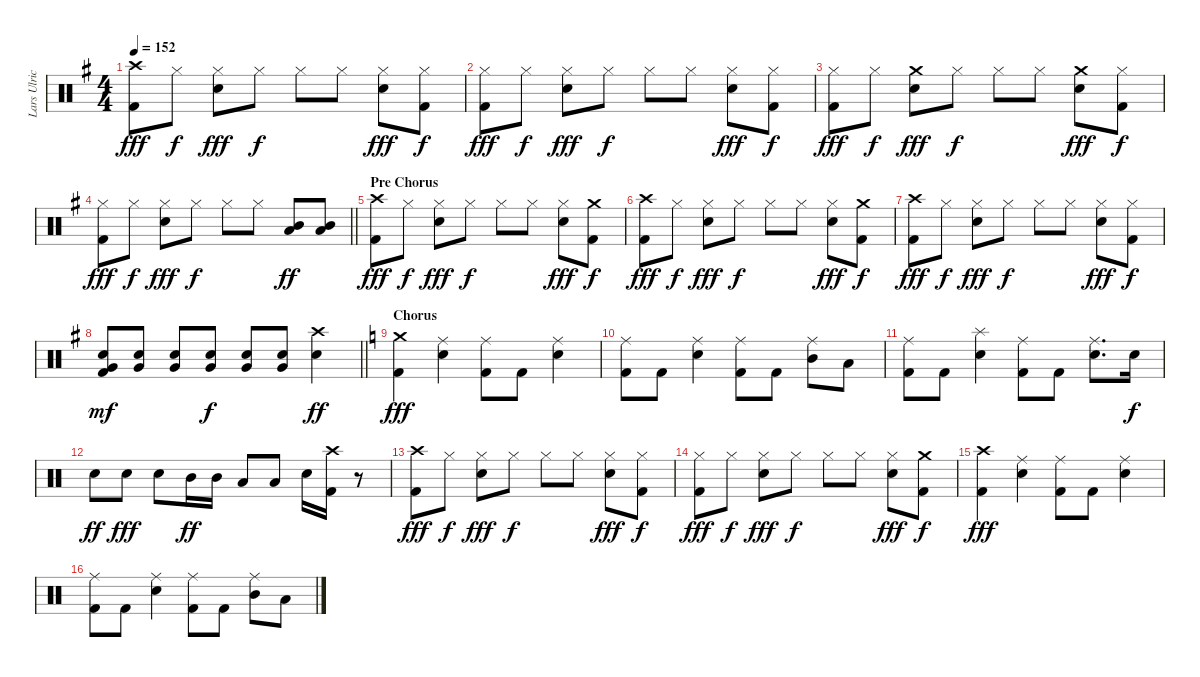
\track ("Lars Ulrich" "Lars Ulric") {instrument percussion}
\staff {score}
\articulation defaults
\ts (4 4)
\tempo 152
\clef neutral
\ks g
("Crash high (hit)" "Kick (hit) 2").8{dy fff} "Hi-Hat (closed)".8{dy f} ("Hi-Hat (closed)" "Snare (hit) 2").8{dy fff} "Hi-Hat (closed)".8{dy f} "Hi-Hat (closed)".8 "Hi-Hat (closed)".8 ("Hi-Hat (closed)" "Snare (hit) 2").8{dy fff} ("Hi-Hat (closed)" "Kick (hit) 2").8{dy f} |
("Hi-Hat (closed)" "Kick (hit) 2").8{dy fff} "Hi-Hat (closed)".8{dy f} ("Hi-Hat (closed)" "Snare (hit) 2").8{dy fff} "Hi-Hat (closed)".8{dy f} "Hi-Hat (closed)".8 "Hi-Hat (closed)".8 ("Hi-Hat (closed)" "Snare (hit) 2").8{dy fff} ("Hi-Hat (closed)" "Kick (hit) 2").8{dy f} |
("Hi-Hat (closed)" "Kick (hit) 2").8{dy fff} "Hi-Hat (closed)".8{dy f} ("Crash medium (hit)" "Snare (hit) 2").8{dy fff} "Hi-Hat (closed)".8{dy f} "Hi-Hat (closed)".8 "Hi-Hat (closed)".8 ("Crash medium (hit)" "Snare (hit) 2").8{dy fff} ("Hi-Hat (closed)" "Kick (hit) 2").8{dy f} |
\barLineRight lightlight
("Hi-Hat (closed)" "Kick (hit) 2").8{dy fff} "Hi-Hat (closed)".8{dy f} ("Hi-Hat (closed)" "Snare (hit) 2").8{dy fff} "Hi-Hat (closed)".8{dy f} "Hi-Hat (closed)".8 "Hi-Hat (closed)".8 ("Low Tom (hit)" "Mid Tom (hit)").8{dy ff} ("Low Tom (hit)" "Mid Tom (hit)").8 |
\section ("" "Pre Chorus")
("Crash high (hit)" "Kick (hit) 2").8{dy fff} "Hi-Hat (closed)".8{dy f} ("Hi-Hat (closed)" "Snare (hit) 2").8{dy fff} "Hi-Hat (closed)".8{dy f} "Hi-Hat (closed)".8 "Hi-Hat (closed)".8 ("Hi-Hat (closed)" "Snare (hit) 2").8{dy fff} ("Crash medium (hit)" "Kick (hit) 2").8{dy f} |
("Crash high (hit)" "Kick (hit) 2").8{dy fff} "Hi-Hat (closed)".8{dy f} ("Hi-Hat (closed)" "Snare (hit) 2").8{dy fff} "Hi-Hat (closed)".8{dy f} "Hi-Hat (closed)".8 "Hi-Hat (closed)".8 ("Hi-Hat (closed)" "Snare (hit) 2").8{dy fff} ("Crash medium (hit)" "Kick (hit) 2").8{dy f} |
("Crash high (hit)" "Kick (hit) 2").8{dy fff} "Hi-Hat (closed)".8{dy f} ("Hi-Hat (closed)" "Snare (hit) 2").8{dy fff} "Hi-Hat (closed)".8{dy f} "Hi-Hat (closed)".8 "Hi-Hat (closed)".8 ("Hi-Hat (closed)" "Snare (hit) 2").8{dy fff} ("Hi-Hat (closed)" "Kick (hit) 2").8{dy f} |
\barLineRight lightlight
("Very Low Tom (hit)" "Snare (hit) 2" "Kick (hit) 2").8{dy mf} ("Very Low Tom (hit)" "Snare (hit) 2").8 ("Very Low Tom (hit)" "Snare (hit) 2").8 ("Very Low Tom (hit)" "Snare (hit) 2").8{dy f} ("Very Low Tom (hit)" "Snare (hit) 2").8 ("Very Low Tom (hit)" "Snare (hit) 2").8 ("Crash high (hit)" "Snare (hit) 2").4{dy ff} |
\section ("" "Chorus")
\ks c
("Crash medium (hit)" "Kick (hit) 2").4{dy fff} ("Ride (middle)" "Snare (hit) 2").4 ("Ride (middle)" "Kick (hit) 2").8 "Kick (hit) 2".8 ("Ride (middle)" "Snare (hit) 2").4 |
("Ride (middle)" "Kick (hit) 2").8 "Kick (hit) 2".8 ("Ride (middle)" "Snare (hit) 2").4 ("Ride (middle)" "Kick (hit) 2").8 "Kick (hit) 2".8 ("Ride (middle)" "Mid Tom (hit)").8 "Low Tom (hit)".8 |
("Ride (middle)" "Kick (hit) 2").8 "Kick (hit) 2".8 ("Splash (hit)" "Snare (hit) 2").4 ("Ride (middle)" "Kick (hit) 2").8 "Kick (hit) 2".8 ("Ride (middle)" "Snare (hit) 2").8{d} "Snare (hit) 2".16{dy f} |
"Snare (hit) 2".8{dy ff} "Snare (hit) 2".8{dy fff} "Snare (hit) 2".8 "Mid Tom (hit)".16{dy ff} "Mid Tom (hit)".16 "Low Tom (hit)".8 "Low Tom (hit)".8 "Snare (hit) 2".16 ("Crash high (hit)" "Kick (hit) 2").16 r.8 |
("Crash high (hit)" "Kick (hit) 2").8{dy fff} "Hi-Hat (closed)".8{dy f} ("Hi-Hat (closed)" "Snare (hit) 2").8{dy fff} "Hi-Hat (closed)".8{dy f} "Hi-Hat (closed)".8 "Hi-Hat (closed)".8 ("Hi-Hat (closed)" "Snare (hit) 2").8{dy fff} ("Hi-Hat (closed)" "Kick (hit) 2").8{dy f} |
("Hi-Hat (closed)" "Kick (hit) 2").8{dy fff} "Hi-Hat (closed)".8{dy f} ("Hi-Hat (closed)" "Snare (hit) 2").8{dy fff} "Hi-Hat (closed)".8{dy f} "Hi-Hat (closed)".8 "Hi-Hat (closed)".8 ("Hi-Hat (closed)" "Snare (hit) 2").8{dy fff} ("Crash medium (hit)" "Kick (hit) 2").8{dy f} |
("Crash high (hit)" "Kick (hit) 2").4{dy fff} ("Ride (middle)" "Snare (hit) 2").4 ("Ride (middle)" "Kick (hit) 2").8 "Kick (hit) 2".8 ("Ride (middle)" "Snare (hit) 2").4 |
("Ride (middle)" "Kick (hit) 2").8 "Kick (hit) 2".8 ("Ride (middle)" "Snare (hit) 2").4 ("Ride (middle)" "Kick (hit) 2").8 "Kick (hit) 2".8 ("Ride (middle)" "Mid Tom (hit)").8 "Low Tom (hit)".8
